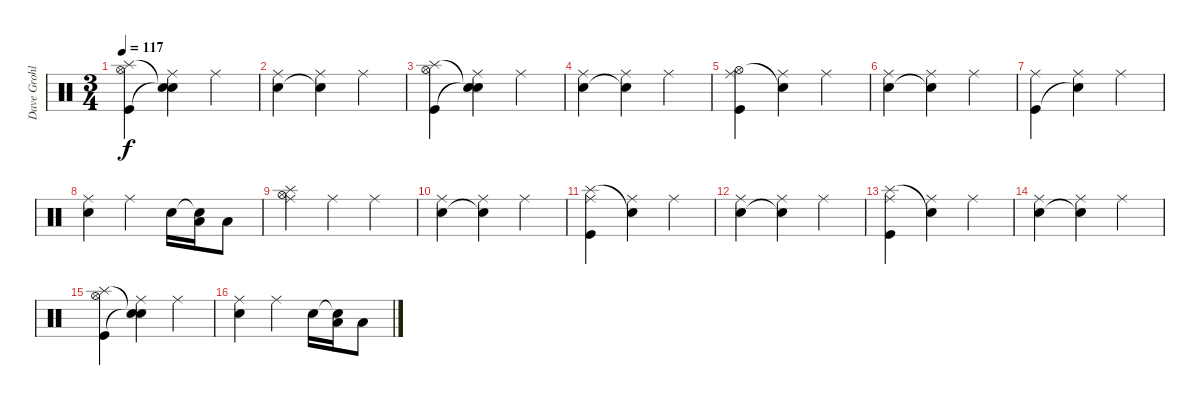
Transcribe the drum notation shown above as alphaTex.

\track ("Dave Grohl-Drums" "Dave Grohl") {instrument percussion}
\staff {score}
\articulation defaults
\ts (3 4)
\tempo 117
\clef neutral
\ks c
("Splash (hit)" "Kick (hit)" "Hi-Hat (open)").4{dy f} ("Snare (hit)"{t} "Snare (hit)"{t} "Ride (middle)").4 "Ride (middle)".4 |
("Electric Snare (hit)" "Ride (middle)").4 ("Snare (hit)"{t} "Ride (middle)").4 "Ride (middle)".4 |
("Splash (hit)" "Kick (hit)" "Hi-Hat (open)").4 ("Snare (hit)"{t} "Snare (hit)"{t} "Ride (middle)").4 "Ride (middle)".4 |
("Electric Snare (hit)" "Ride (middle)").4 ("Snare (hit)"{t} "Ride (middle)").4 "Ride (middle)".4 |
("Hi-Hat (open)" "Kick (hit)" "Ride (middle)").4 ("Snare (hit)"{t} "Ride (middle)").4 "Ride (middle)".4 |
("Electric Snare (hit)" "Ride (middle)").4 ("Snare (hit)"{t} "Ride (middle)").4 "Ride (middle)".4 |
("Kick (hit)" "Ride (middle)").4 ("Snare (hit)"{t} "Ride (middle)").4 "Ride (middle)".4 |
("Electric Snare (hit)" "Ride (middle)").4 "Ride (middle)".4 "Electric Snare (hit)".16 ("Snare (hit)"{t} "Low Tom (hit)").16 "Low Floor Tom (hit)".8 |
("Splash (hit)" "Hi-Hat (open)" "Ride (middle)").4 "Ride (middle)".4 "Ride (middle)".4 |
("Electric Snare (hit)" "Ride (middle)").4 ("Snare (hit)"{t} "Ride (middle)").4 "Ride (middle)".4 |
("Splash (hit)" "Kick (hit)" "Ride (middle)").4 ("Snare (hit)"{t} "Ride (middle)").4 "Ride (middle)".4 |
("Electric Snare (hit)" "Ride (middle)").4 ("Snare (hit)"{t} "Ride (middle)").4 "Ride (middle)".4 |
("Splash (hit)" "Kick (hit)" "Ride (middle)").4 ("Snare (hit)"{t} "Ride (middle)").4 "Ride (middle)".4 |
("Electric Snare (hit)" "Ride (middle)").4 ("Snare (hit)"{t} "Ride (middle)").4 "Ride (middle)".4 |
("Splash (hit)" "Kick (hit)" "Hi-Hat (open)").4 ("Snare (hit)"{t} "Snare (hit)"{t} "Ride (middle)").4 "Ride (middle)".4 |
("Electric Snare (hit)" "Ride (middle)").4 "Ride (middle)".4 "Electric Snare (hit)".16 ("Snare (hit)"{t} "Low Tom (hit)").16 "Low Floor Tom (hit)".8
